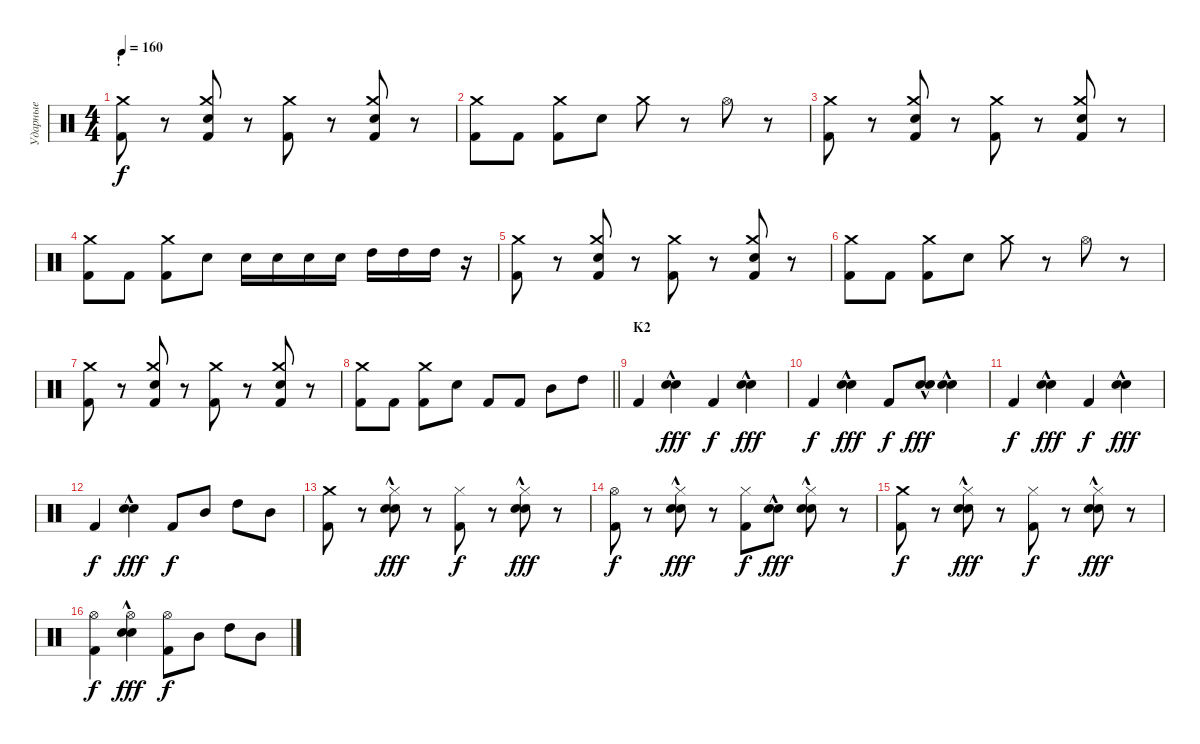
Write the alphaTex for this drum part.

\track ("Ударные" "Ударные") {instrument percussion}
\staff {score}
\articulation defaults
\ts (4 4)
\section ("" "!")
\tempo 160
\clef neutral
\ks c
("Kick (hit) 2" "Crash medium (hit)").8{dy f} r.8 ("Snare (hit) 2" "Crash medium (hit)" "Kick (hit) 2").8 r.8 ("Kick (hit) 2" "Crash medium (hit)").8 r.8 ("Kick (hit) 2" "Crash medium (hit)" "Snare (hit) 2").8 r.8 |
("Kick (hit) 2" "Crash medium (hit)").8 "Kick (hit) 2".8 ("Kick (hit) 2" "Crash medium (hit)").8 "Snare (hit) 2".8 "Crash medium (hit)".8 r.8 "Hi-Hat (open)".8 r.8 |
("Kick (hit) 2" "Crash medium (hit)").8 r.8 ("Snare (hit) 2" "Crash medium (hit)" "Kick (hit) 2").8 r.8 ("Kick (hit) 2" "Crash medium (hit)").8 r.8 ("Kick (hit) 2" "Crash medium (hit)" "Snare (hit) 2").8 r.8 |
("Kick (hit) 2" "Crash medium (hit)").8 "Kick (hit) 2".8 ("Kick (hit) 2" "Crash medium (hit)").8 "Snare (hit) 2".8 "Snare (hit) 2".16 "Snare (hit) 2".16 "Snare (hit) 2".16 "Snare (hit) 2".16 "High Tom (hit)".16 "High Tom (hit)".16 "High Tom (hit)".16 r.16 |
("Kick (hit) 2" "Crash medium (hit)").8 r.8 ("Snare (hit) 2" "Crash medium (hit)" "Kick (hit) 2").8 r.8 ("Kick (hit) 2" "Crash medium (hit)").8 r.8 ("Kick (hit) 2" "Crash medium (hit)" "Snare (hit) 2").8 r.8 |
("Kick (hit) 2" "Crash medium (hit)").8 "Kick (hit) 2".8 ("Kick (hit) 2" "Crash medium (hit)").8 "Snare (hit) 2".8 "Crash medium (hit)".8 r.8 "Hi-Hat (open)".8 r.8 |
("Kick (hit) 2" "Crash medium (hit)").8 r.8 ("Snare (hit) 2" "Crash medium (hit)" "Kick (hit) 2").8 r.8 ("Kick (hit) 2" "Crash medium (hit)").8 r.8 ("Kick (hit) 2" "Crash medium (hit)" "Snare (hit) 2").8 r.8 |
\barLineRight lightlight
("Kick (hit) 2" "Crash medium (hit)").8 "Kick (hit) 2".8 ("Kick (hit) 2" "Crash medium (hit)").8 "Snare (hit) 2".8 "Kick (hit) 2".8 "Kick (hit) 2".8 "Mid Tom (hit)".8 "High Tom (hit)".8 |
\section ("" "K2")
"Kick (hit) 2".4 ("Hand Clap (hit)"{hac} "Snare (hit) 2").4{dy fff} "Kick (hit) 2".4{dy f} ("Hand Clap (hit)"{hac} "Snare (hit) 2").4{dy fff} |
"Kick (hit) 2".4{dy f} ("Hand Clap (hit)"{hac} "Snare (hit) 2").4{dy fff} "Kick (hit) 2".8{dy f} ("Hand Clap (hit)"{hac} "Snare (hit) 2").8{dy fff} ("Snare (hit) 2"{hac} "Hand Clap (hit)").4 |
"Kick (hit) 2".4{dy f} ("Hand Clap (hit)"{hac} "Snare (hit) 2").4{dy fff} "Kick (hit) 2".4{dy f} ("Hand Clap (hit)"{hac} "Snare (hit) 2").4{dy fff} |
"Kick (hit) 2".4{dy f} ("Hand Clap (hit)"{hac} "Snare (hit) 2").4{dy fff} "Kick (hit) 2".8{dy f} "Mid Tom (hit)".8 "High Tom (hit)".8 "Mid Tom (hit)".8 |
("Kick (hit) 2" "Crash medium (hit)").8 r.8 ("Hand Clap (hit)"{hac} "Snare (hit) 2" "Hi-Hat (closed)").8{dy fff} r.8 ("Kick (hit) 2" "Hi-Hat (closed)").8{dy f} r.8 ("Hand Clap (hit)"{hac} "Snare (hit) 2" "Hi-Hat (closed)").8{dy fff} r.8 |
("Kick (hit) 2" "Hi-Hat (open)").8{dy f} r.8 ("Hand Clap (hit)"{hac} "Snare (hit) 2" "Hi-Hat (closed)").8{dy fff} r.8 ("Kick (hit) 2" "Hi-Hat (closed)").8{dy f} ("Hand Clap (hit)"{hac} "Snare (hit) 2").8{dy fff} ("Hand Clap (hit)"{hac} "Snare (hit) 2" "Hi-Hat (closed)").8 r.8 |
("Kick (hit) 2" "Crash medium (hit)").8{dy f} r.8 ("Hand Clap (hit)"{hac} "Snare (hit) 2" "Hi-Hat (closed)").8{dy fff} r.8 ("Kick (hit) 2" "Hi-Hat (closed)").8{dy f} r.8 ("Hand Clap (hit)"{hac} "Snare (hit) 2" "Hi-Hat (closed)").8{dy fff} r.8 |
("Kick (hit) 2" "Hi-Hat (open)").4{dy f} ("Hand Clap (hit)"{hac} "Snare (hit) 2" "Hi-Hat (open)").4{dy fff} ("Kick (hit) 2" "Hi-Hat (open)").8{dy f} "Mid Tom (hit)".8 "High Tom (hit)".8 "Mid Tom (hit)".8
